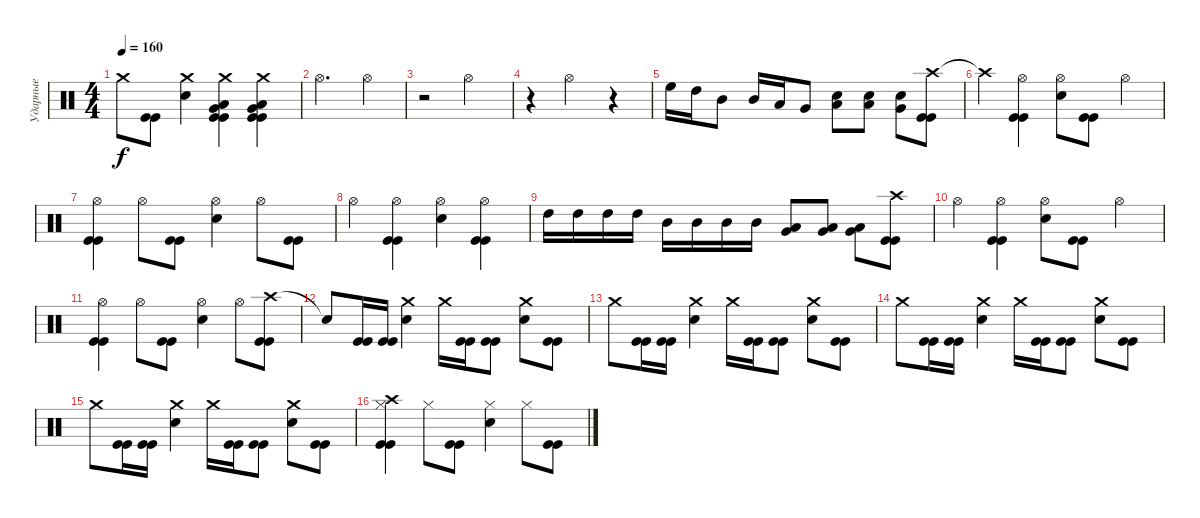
\track ("Ударные" "Ударные") {instrument percussion}
\staff {score}
\articulation defaults
\ts (4 4)
\tempo 160
\clef neutral
\ks c "Crash medium (hit)".8{dy f}
("Kick (hit)" "Kick (hit)").8 ("Crash medium (hit)" "Snare (hit) 2").4 ("Crash medium (hit)" "Very Low Tom (hit)" "Low Tom (hit)" "Kick (hit)" "Kick (hit)").4 ("Crash medium (hit)" "Very Low Tom (hit)" "Low Tom (hit)" "Kick (hit)" "Kick (hit)").4 |
"Hi-Hat (open)".2{d} "Hi-Hat (open)".4 |
r.2 "Hi-Hat (open)".2 |
r.4 "Hi-Hat (open)".2 r.4 |
"High Floor Tom (hit)".16 "High Tom (hit)".16 "Mid Tom (hit)".8 "Mid Tom (hit)".16 "Low Tom (hit)".16 "Very Low Tom (hit)".8 ("Snare (hit) 2" "Low Tom (hit)").8 ("Snare (hit) 2" "Low Tom (hit)").8 ("Snare (hit) 2" "Very Low Tom (hit)").8 ("Crash high (hit)" "Kick (hit)" "Kick (hit)").8 |
"Crash high (hit)"{t}.4 ("Hi-Hat (open)" "Kick (hit)" "Kick (hit)").4 ("Hi-Hat (open)" "Snare (hit) 2").8 ("Kick (hit)" "Kick (hit)").8 "Hi-Hat (open)".4 |
("Hi-Hat (open)" "Kick (hit)" "Kick (hit)").4 "Hi-Hat (open)".8 ("Kick (hit)" "Kick (hit)").8 ("Hi-Hat (open)" "Snare (hit) 2").4 "Hi-Hat (open)".8 ("Kick (hit)" "Kick (hit)").8 |
"Hi-Hat (open)".4 ("Hi-Hat (open)" "Kick (hit)" "Kick (hit)").4 ("Hi-Hat (open)" "Snare (hit) 2").4 ("Hi-Hat (open)" "Kick (hit)" "Kick (hit)").4 |
"High Tom (hit)".16 "High Tom (hit)".16 "High Tom (hit)".16 "High Tom (hit)".16 "Mid Tom (hit)".16 "Mid Tom (hit)".16 "Mid Tom (hit)".16 "Mid Tom (hit)".16 ("Very Low Tom (hit)" "Low Tom (hit)").8 ("Very Low Tom (hit)" "Low Tom (hit)").8 ("Low Floor Tom (hit)" "Very Low Tom (hit)").8 ("Crash high (hit)" "Kick (hit)" "Kick (hit)").8 |
"Hi-Hat (open)".4 ("Hi-Hat (open)" "Kick (hit)" "Kick (hit)").4 ("Hi-Hat (open)" "Snare (hit) 2").8 ("Kick (hit)" "Kick (hit)").8 "Hi-Hat (open)".4 |
("Hi-Hat (open)" "Kick (hit)" "Kick (hit)").4 "Hi-Hat (open)".8 ("Kick (hit)" "Kick (hit)").8 ("Hi-Hat (open)" "Snare (hit) 2").4 "Hi-Hat (open)".8 ("Crash high (hit)" "Kick (hit)" "Kick (hit)").8 |
"Snare (hit)"{t}.8 ("Kick (hit)" "Kick (hit)").16 ("Kick (hit)" "Kick (hit)").16 ("Crash medium (hit)" "Snare (hit) 2").4 "Crash medium (hit)".16 ("Kick (hit)" "Kick (hit)").16 ("Kick (hit)" "Kick (hit)").8 ("Crash medium (hit)" "Snare (hit) 2").8 ("Kick (hit)" "Kick (hit)").8 |
"Crash medium (hit)".8 ("Kick (hit)" "Kick (hit)").16 ("Kick (hit)" "Kick (hit)").16 ("Crash medium (hit)" "Snare (hit) 2").4 "Crash medium (hit)".16 ("Kick (hit)" "Kick (hit)").16 ("Kick (hit)" "Kick (hit)").8 ("Crash medium (hit)" "Snare (hit) 2").8 ("Kick (hit)" "Kick (hit)").8 |
"Crash medium (hit)".8 ("Kick (hit)" "Kick (hit)").16 ("Kick (hit)" "Kick (hit)").16 ("Crash medium (hit)" "Snare (hit) 2").4 "Crash medium (hit)".16 ("Kick (hit)" "Kick (hit)").16 ("Kick (hit)" "Kick (hit)").8 ("Crash medium (hit)" "Snare (hit) 2").8 ("Kick (hit)" "Kick (hit)").8 |
"Crash medium (hit)".8 ("Kick (hit)" "Kick (hit)").16 ("Kick (hit)" "Kick (hit)").16 ("Crash medium (hit)" "Snare (hit) 2").4 "Crash medium (hit)".16 ("Kick (hit)" "Kick (hit)").16 ("Kick (hit)" "Kick (hit)").8 ("Crash medium (hit)" "Snare (hit) 2").8 ("Kick (hit)" "Kick (hit)").8 |
("Crash high (hit)" "Hi-Hat (closed)" "Kick (hit)" "Kick (hit)").4 "Hi-Hat (closed)".8 ("Kick (hit)" "Kick (hit)").8 ("Hi-Hat (closed)" "Snare (hit) 2").4 "Hi-Hat (closed)".8 ("Kick (hit)" "Kick (hit)").8
